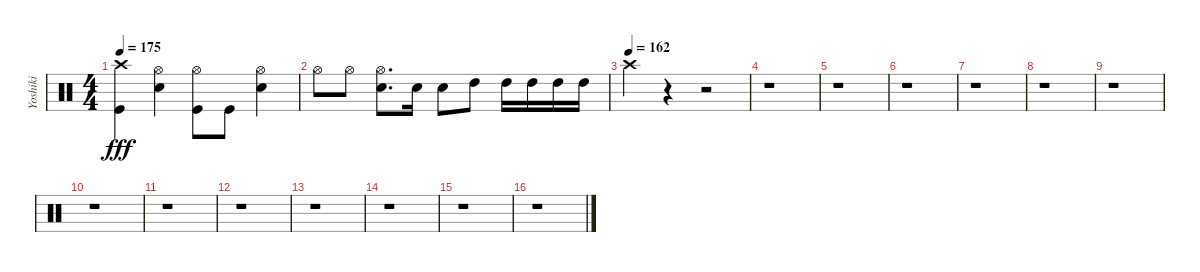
\track ("Yoshiki" "Yoshiki") {instrument percussion}
\staff {score}
\articulation defaults
\ts (4 4)
\tempo 175
\clef neutral
\ks c
("Crash high (hit)" "Kick (hit)").4{dy fff} ("Hi-Hat (open)" "Snare (hit) 2").4 ("Hi-Hat (open)" "Kick (hit)").8 "Kick (hit)".8 ("Hi-Hat (open)" "Snare (hit) 2").4 |
"Hi-Hat (open)".8 "Hi-Hat (open)".8 ("Hi-Hat (open)" "Snare (hit) 2").8{d} "Snare (hit) 2".16 "Snare (hit) 2".8 "High Tom (hit)".8 "High Tom (hit)".16 "High Tom (hit)".16 "High Tom (hit)".16 "High Tom (hit)".16 |
\tempo (162)
"Crash high (hit)".4{txt " "} r.4 r.2 |
r.1 |
r.1 |
r.1 |
r.1 |
r.1 |
r.1 |
r.1 |
r.1 |
r.1 |
r.1 |
r.1 |
r.1 |
r.1
